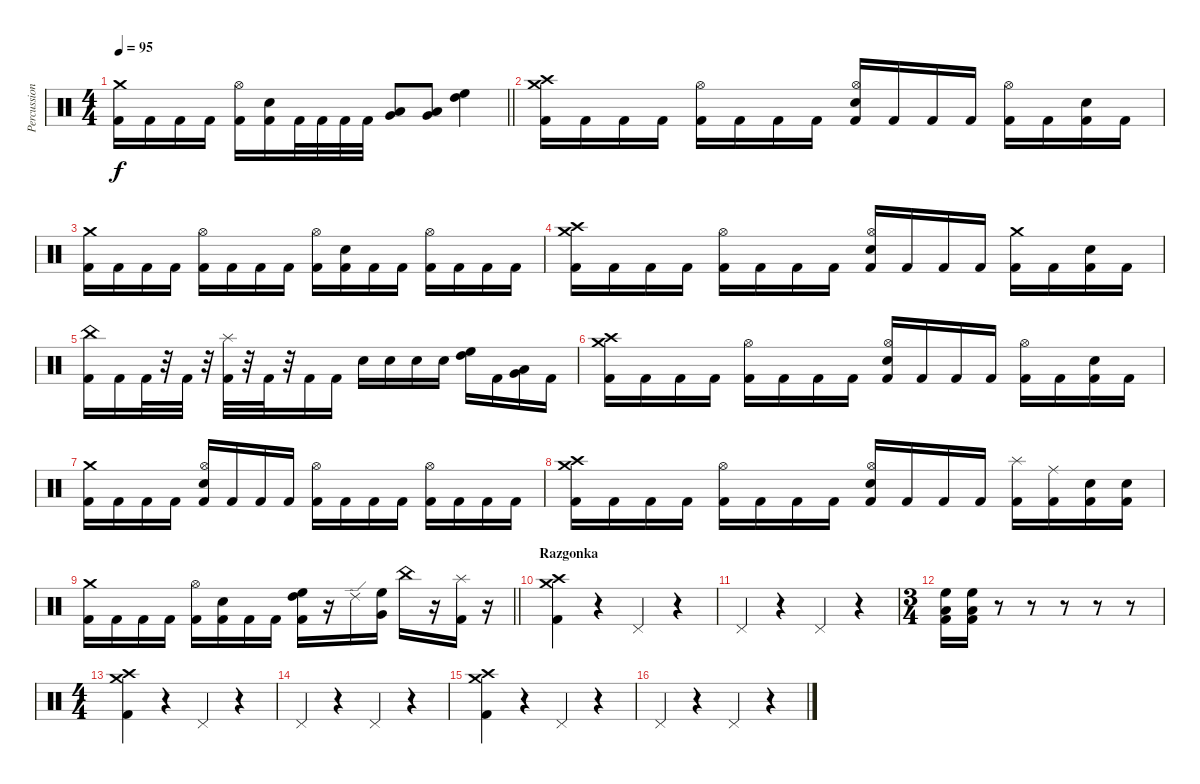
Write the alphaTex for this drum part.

\track ("Percussion" "Percussion") {instrument percussion}
\staff {score}
\articulation defaults
\ts (4 4)
\tempo 95
\clef neutral
\barLineRight lightlight
\ks c
("Crash medium (hit)" "Kick (hit) 2").16{dy f} "Kick (hit) 2".16 "Kick (hit) 2".16 "Kick (hit) 2".16 ("Hi-Hat (open)" "Kick (hit) 2").16 ("Electric Snare (hit)" "Kick (hit) 2").16 "Kick (hit) 2".32 "Kick (hit) 2".32 "Kick (hit) 2".32 "Kick (hit) 2".32 ("Very Low Tom (hit)" "Low Tom (hit)").8 ("Low Tom (hit)" "Very Low Tom (hit)").8 ("High Tom (hit)" "High Floor Tom (hit)").4 |
("Crash high (hit)" "Crash medium (hit)" "Kick (hit) 2").16 "Kick (hit) 2".16 "Kick (hit) 2".16 "Kick (hit) 2".16 ("Hi-Hat (open)" "Kick (hit) 2").16 "Kick (hit) 2".16 "Kick (hit) 2".16 "Kick (hit) 2".16 ("Hi-Hat (open)" "Electric Snare (hit)" "Kick (hit) 2").16 "Kick (hit) 2".16 "Kick (hit) 2".16 "Kick (hit) 2".16 ("Hi-Hat (open)" "Kick (hit) 2").16 "Kick (hit) 2".16 ("Electric Snare (hit)" "Kick (hit) 2").16 "Kick (hit) 2".16 |
("Crash medium (hit)" "Kick (hit) 2").16 "Kick (hit) 2".16 "Kick (hit) 2".16 "Kick (hit) 2".16 ("Hi-Hat (open)" "Kick (hit) 2").16 "Kick (hit) 2".16 "Kick (hit) 2".16 "Kick (hit) 2".16 ("Hi-Hat (open)" "Kick (hit) 2").16 ("Electric Snare (hit)" "Kick (hit) 2").16 "Kick (hit) 2".16 "Kick (hit) 2".16 ("Hi-Hat (open)" "Kick (hit) 2").16 "Kick (hit) 2".16 "Kick (hit) 2".16 "Kick (hit) 2".16 |
("Crash high (hit)" "Crash medium (hit)" "Kick (hit) 2").16 "Kick (hit) 2".16 "Kick (hit) 2".16 "Kick (hit) 2".16 ("Hi-Hat (open)" "Kick (hit) 2").16 "Kick (hit) 2".16 "Kick (hit) 2".16 "Kick (hit) 2".16 ("Hi-Hat (open)" "Electric Snare (hit)" "Kick (hit) 2").16 "Kick (hit) 2".16 "Kick (hit) 2".16 "Kick (hit) 2".16 ("Crash medium (hit)" "Kick (hit) 2").16 "Kick (hit) 2".16 ("Electric Snare (hit)" "Kick (hit) 2").16 "Kick (hit) 2".16 |
("China (hit)" "Kick (hit) 2").16 "Kick (hit) 2".16 "Kick (hit) 2".32 r.32 "Kick (hit) 2".32 r.32 ("Splash (hit)" "Kick (hit) 2").32 r.32 "Kick (hit) 2".32 r.32 "Kick (hit) 2".16 "Kick (hit) 2".16 "Electric Snare (hit)".16 "Electric Snare (hit)".16 "Electric Snare (hit)".16 "Electric Snare (hit)".16 ("High Tom (hit)" "High Floor Tom (hit)").16 "Kick (hit) 2".16 ("Very Low Tom (hit)" "Low Tom (hit)").16 "Kick (hit) 2".16 |
("Crash high (hit)" "Crash medium (hit)" "Kick (hit) 2").16 "Kick (hit) 2".16 "Kick (hit) 2".16 "Kick (hit) 2".16 ("Hi-Hat (open)" "Kick (hit) 2").16 "Kick (hit) 2".16 "Kick (hit) 2".16 "Kick (hit) 2".16 ("Hi-Hat (open)" "Electric Snare (hit)" "Kick (hit) 2").16 "Kick (hit) 2".16 "Kick (hit) 2".16 "Kick (hit) 2".16 ("Hi-Hat (open)" "Kick (hit) 2").16 "Kick (hit) 2".16 ("Electric Snare (hit)" "Kick (hit) 2").16 "Kick (hit) 2".16 |
("Crash medium (hit)" "Kick (hit) 2").16 "Kick (hit) 2".16 "Kick (hit) 2".16 "Kick (hit) 2".16 ("Hi-Hat (open)" "Electric Snare (hit)" "Kick (hit) 2").16 "Kick (hit) 2".16 "Kick (hit) 2".16 "Kick (hit) 2".16 ("Hi-Hat (open)" "Kick (hit) 2").16 "Kick (hit) 2".16 "Kick (hit) 2".16 "Kick (hit) 2".16 ("Hi-Hat (open)" "Kick (hit) 2").16 "Kick (hit) 2".16 "Kick (hit) 2".16 "Kick (hit) 2".16 |
("Crash high (hit)" "Crash medium (hit)" "Kick (hit) 2").16 "Kick (hit) 2".16 "Kick (hit) 2".16 "Kick (hit) 2".16 ("Hi-Hat (open)" "Kick (hit) 2").16 "Kick (hit) 2".16 "Kick (hit) 2".16 "Kick (hit) 2".16 ("Hi-Hat (open)" "Electric Snare (hit)" "Kick (hit) 2").16 "Kick (hit) 2".16 "Kick (hit) 2".16 "Kick (hit) 2".16 ("Splash (hit)" "Kick (hit) 2").16 ("Ride (middle)" "Kick (hit) 2").16 ("Electric Snare (hit)" "Kick (hit) 2").16 ("Electric Snare (hit)" "Kick (hit) 2").16 |
\barLineRight lightlight
("Crash medium (hit)" "Kick (hit) 2").16 "Kick (hit) 2".16 "Kick (hit) 2".16 "Kick (hit) 2".16 ("Hi-Hat (open)" "Kick (hit) 2").16 ("Electric Snare (hit)" "Kick (hit) 2").16 "Kick (hit) 2".16 "Kick (hit) 2".16 ("High Tom (hit)" "High Floor Tom (hit)" "Kick (hit) 2").16 r.16 "Ride (edge) 2".16 ("Very Low Tom (hit)" "High Floor Tom (hit)").16 "China (hit)".16 r.16 ("Splash (hit)" "Kick (hit) 2").16 r.16 |
\section ("" "Razgonka")
("Crash medium (hit)" "Crash high (hit)" "Kick (hit) 2").4 r.4 "Pedal Hi-Hat (hit)".4 r.4 |
"Pedal Hi-Hat (hit)".4 r.4 "Pedal Hi-Hat (hit)".4 r.4 |
\ts (3 4)
("High Floor Tom (hit)" "Low Tom (hit)" "Kick (hit) 2").16 ("High Floor Tom (hit)" "Low Tom (hit)" "Kick (hit) 2").16 r.8 r.8 r.8 r.8 r.8 |
\ts (4 4)
("Crash medium (hit)" "Crash high (hit)" "Kick (hit) 2").4 r.4 "Pedal Hi-Hat (hit)".4 r.4 |
"Pedal Hi-Hat (hit)".4 r.4 "Pedal Hi-Hat (hit)".4 r.4 |
("Crash medium (hit)" "Crash high (hit)" "Kick (hit) 2").4 r.4 "Pedal Hi-Hat (hit)".4 r.4 |
"Pedal Hi-Hat (hit)".4 r.4 "Pedal Hi-Hat (hit)".4 r.4
